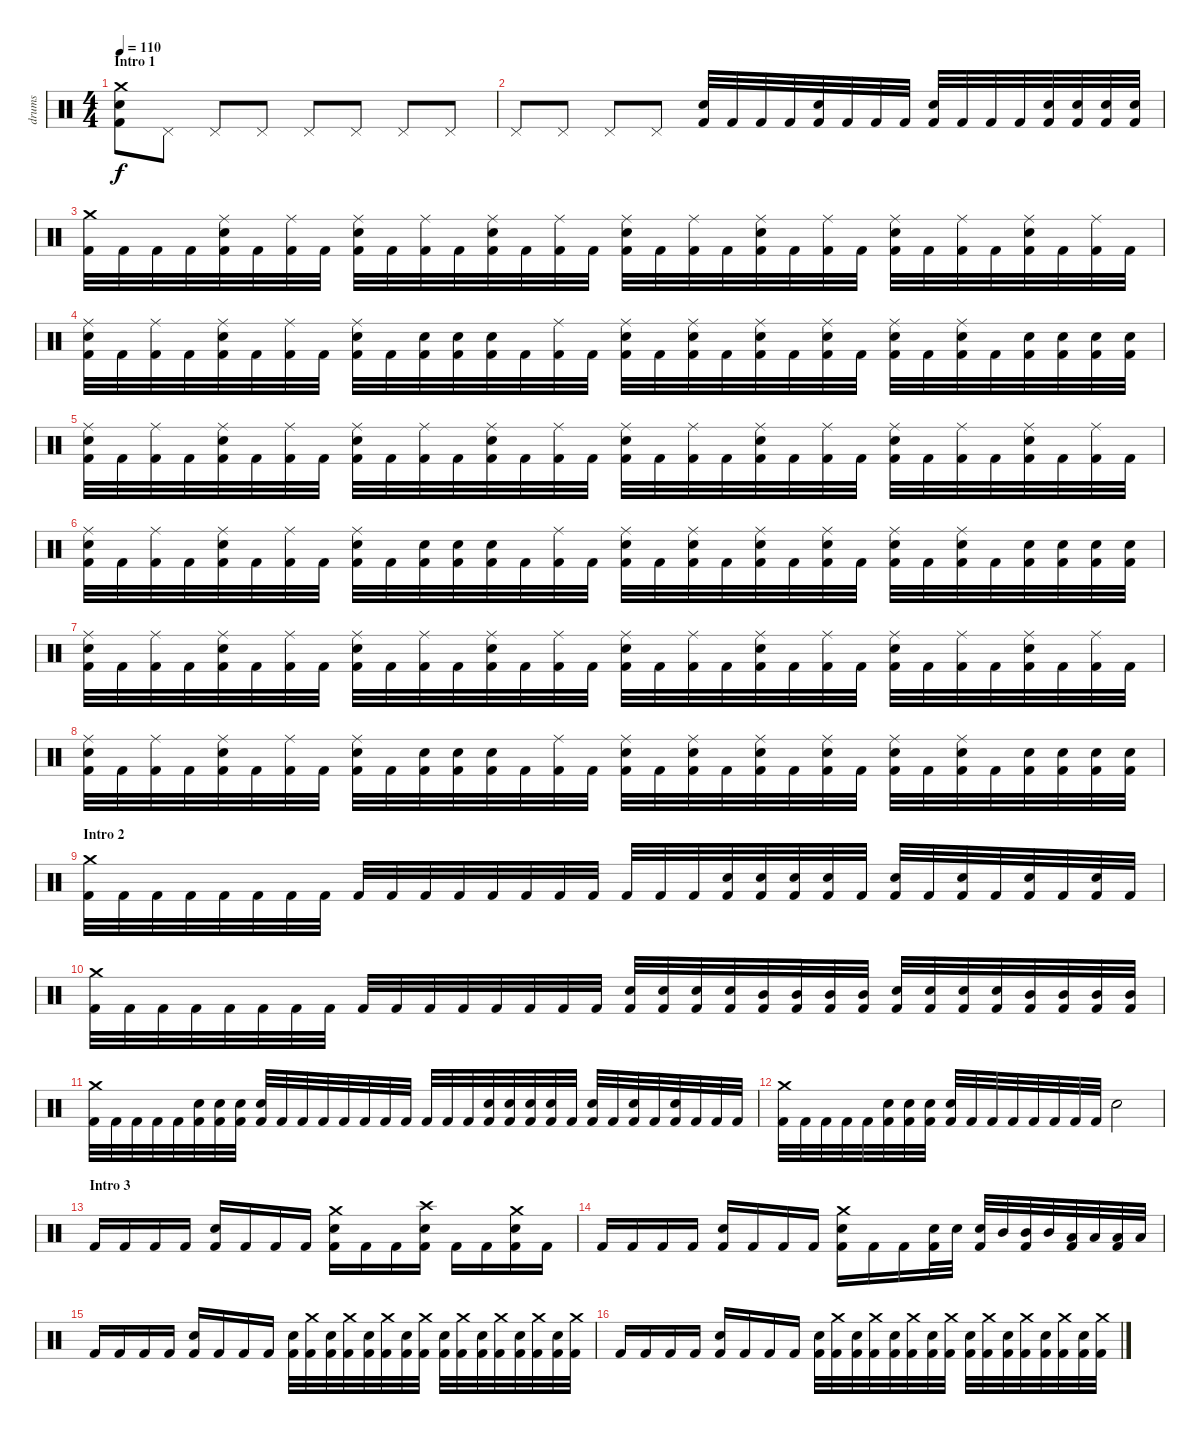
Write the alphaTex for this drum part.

\track ("drums" "drums") {instrument percussion}
\staff {score}
\articulation defaults
\ts (4 4)
\section ("" "Intro 1")
\tempo 110
\clef neutral
\ks c
("Crash medium (hit)" "Electric Snare (hit)" "Kick (hit) 2").8{dy f} "Pedal Hi-Hat (hit)".8 "Pedal Hi-Hat (hit)".8 "Pedal Hi-Hat (hit)".8 "Pedal Hi-Hat (hit)".8 "Pedal Hi-Hat (hit)".8 "Pedal Hi-Hat (hit)".8 "Pedal Hi-Hat (hit)".8 |
"Pedal Hi-Hat (hit)".8 "Pedal Hi-Hat (hit)".8 "Pedal Hi-Hat (hit)".8 "Pedal Hi-Hat (hit)".8 ("Electric Snare (hit)" "Kick (hit) 2").32 "Kick (hit) 2".32 "Kick (hit) 2".32 "Kick (hit) 2".32 ("Electric Snare (hit)" "Kick (hit) 2").32 "Kick (hit) 2".32 "Kick (hit) 2".32 "Kick (hit) 2".32 ("Electric Snare (hit)" "Kick (hit) 2").32 "Kick (hit) 2".32 "Kick (hit) 2".32 "Kick (hit) 2".32 ("Electric Snare (hit)" "Kick (hit) 2").32 ("Electric Snare (hit)" "Kick (hit) 2").32 ("Electric Snare (hit)" "Kick (hit) 2").32 ("Electric Snare (hit)" "Kick (hit) 2").32 |
("Crash medium (hit)" "Kick (hit) 2").32 "Kick (hit) 2".32 "Kick (hit) 2".32 "Kick (hit) 2".32 ("Ride (middle)" "Electric Snare (hit)" "Kick (hit) 2").32 "Kick (hit) 2".32 ("Ride (middle)" "Kick (hit) 2").32 "Kick (hit) 2".32 ("Ride (middle)" "Electric Snare (hit)" "Kick (hit) 2").32 "Kick (hit) 2".32 ("Ride (middle)" "Kick (hit) 2").32 "Kick (hit) 2".32 ("Ride (middle)" "Electric Snare (hit)" "Kick (hit) 2").32 "Kick (hit) 2".32 ("Ride (middle)" "Kick (hit) 2").32 "Kick (hit) 2".32 ("Ride (middle)" "Electric Snare (hit)" "Kick (hit) 2").32 "Kick (hit) 2".32 ("Ride (middle)" "Kick (hit) 2").32 "Kick (hit) 2".32 ("Ride (middle)" "Electric Snare (hit)" "Kick (hit) 2").32 "Kick (hit) 2".32 ("Ride (middle)" "Kick (hit) 2").32 "Kick (hit) 2".32 ("Ride (middle)" "Electric Snare (hit)" "Kick (hit) 2").32 "Kick (hit) 2".32 ("Ride (middle)" "Kick (hit) 2").32 "Kick (hit) 2".32 ("Ride (middle)" "Electric Snare (hit)" "Kick (hit) 2").32 "Kick (hit) 2".32 ("Ride (middle)" "Kick (hit) 2").32 "Kick (hit) 2".32 |
("Ride (middle)" "Electric Snare (hit)" "Kick (hit) 2").32 "Kick (hit) 2".32 ("Ride (middle)" "Kick (hit) 2").32 "Kick (hit) 2".32 ("Ride (middle)" "Electric Snare (hit)" "Kick (hit) 2").32 "Kick (hit) 2".32 ("Ride (middle)" "Kick (hit) 2").32 "Kick (hit) 2".32 ("Ride (middle)" "Electric Snare (hit)" "Kick (hit) 2").32 "Kick (hit) 2".32 ("Electric Snare (hit)" "Kick (hit) 2").32 ("Electric Snare (hit)" "Kick (hit) 2").32 ("Electric Snare (hit)" "Kick (hit) 2").32 "Kick (hit) 2".32 ("Ride (middle)" "Kick (hit) 2").32 "Kick (hit) 2".32 ("Ride (middle)" "Electric Snare (hit)" "Kick (hit) 2").32 "Kick (hit) 2".32 ("Ride (middle)" "Electric Snare (hit)" "Kick (hit) 2").32 "Kick (hit) 2".32 ("Ride (middle)" "Electric Snare (hit)" "Kick (hit) 2").32 "Kick (hit) 2".32 ("Ride (middle)" "Electric Snare (hit)" "Kick (hit) 2").32 "Kick (hit) 2".32 ("Ride (middle)" "Electric Snare (hit)" "Kick (hit) 2").32 "Kick (hit) 2".32 ("Ride (middle)" "Electric Snare (hit)" "Kick (hit) 2").32 "Kick (hit) 2".32 ("Electric Snare (hit)" "Kick (hit) 2").32 ("Electric Snare (hit)" "Kick (hit) 2").32 ("Electric Snare (hit)" "Kick (hit) 2").32 ("Electric Snare (hit)" "Kick (hit) 2").32 |
("Ride (middle)" "Electric Snare (hit)" "Kick (hit) 2").32 "Kick (hit) 2".32 ("Ride (middle)" "Kick (hit) 2").32 "Kick (hit) 2".32 ("Ride (middle)" "Electric Snare (hit)" "Kick (hit) 2").32 "Kick (hit) 2".32 ("Ride (middle)" "Kick (hit) 2").32 "Kick (hit) 2".32 ("Ride (middle)" "Electric Snare (hit)" "Kick (hit) 2").32 "Kick (hit) 2".32 ("Ride (middle)" "Kick (hit) 2").32 "Kick (hit) 2".32 ("Ride (middle)" "Electric Snare (hit)" "Kick (hit) 2").32 "Kick (hit) 2".32 ("Ride (middle)" "Kick (hit) 2").32 "Kick (hit) 2".32 ("Ride (middle)" "Electric Snare (hit)" "Kick (hit) 2").32 "Kick (hit) 2".32 ("Ride (middle)" "Kick (hit) 2").32 "Kick (hit) 2".32 ("Ride (middle)" "Electric Snare (hit)" "Kick (hit) 2").32 "Kick (hit) 2".32 ("Ride (middle)" "Kick (hit) 2").32 "Kick (hit) 2".32 ("Ride (middle)" "Electric Snare (hit)" "Kick (hit) 2").32 "Kick (hit) 2".32 ("Ride (middle)" "Kick (hit) 2").32 "Kick (hit) 2".32 ("Ride (middle)" "Electric Snare (hit)" "Kick (hit) 2").32 "Kick (hit) 2".32 ("Ride (middle)" "Kick (hit) 2").32 "Kick (hit) 2".32 |
("Ride (middle)" "Electric Snare (hit)" "Kick (hit) 2").32 "Kick (hit) 2".32 ("Ride (middle)" "Kick (hit) 2").32 "Kick (hit) 2".32 ("Ride (middle)" "Electric Snare (hit)" "Kick (hit) 2").32 "Kick (hit) 2".32 ("Ride (middle)" "Kick (hit) 2").32 "Kick (hit) 2".32 ("Ride (middle)" "Electric Snare (hit)" "Kick (hit) 2").32 "Kick (hit) 2".32 ("Electric Snare (hit)" "Kick (hit) 2").32 ("Electric Snare (hit)" "Kick (hit) 2").32 ("Electric Snare (hit)" "Kick (hit) 2").32 "Kick (hit) 2".32 ("Ride (middle)" "Kick (hit) 2").32 "Kick (hit) 2".32 ("Ride (middle)" "Electric Snare (hit)" "Kick (hit) 2").32 "Kick (hit) 2".32 ("Ride (middle)" "Electric Snare (hit)" "Kick (hit) 2").32 "Kick (hit) 2".32 ("Ride (middle)" "Electric Snare (hit)" "Kick (hit) 2").32 "Kick (hit) 2".32 ("Ride (middle)" "Electric Snare (hit)" "Kick (hit) 2").32 "Kick (hit) 2".32 ("Ride (middle)" "Electric Snare (hit)" "Kick (hit) 2").32 "Kick (hit) 2".32 ("Ride (middle)" "Electric Snare (hit)" "Kick (hit) 2").32 "Kick (hit) 2".32 ("Electric Snare (hit)" "Kick (hit) 2").32 ("Electric Snare (hit)" "Kick (hit) 2").32 ("Electric Snare (hit)" "Kick (hit) 2").32 ("Electric Snare (hit)" "Kick (hit) 2").32 |
("Ride (middle)" "Electric Snare (hit)" "Kick (hit) 2").32 "Kick (hit) 2".32 ("Ride (middle)" "Kick (hit) 2").32 "Kick (hit) 2".32 ("Ride (middle)" "Electric Snare (hit)" "Kick (hit) 2").32 "Kick (hit) 2".32 ("Ride (middle)" "Kick (hit) 2").32 "Kick (hit) 2".32 ("Ride (middle)" "Electric Snare (hit)" "Kick (hit) 2").32 "Kick (hit) 2".32 ("Ride (middle)" "Kick (hit) 2").32 "Kick (hit) 2".32 ("Ride (middle)" "Electric Snare (hit)" "Kick (hit) 2").32 "Kick (hit) 2".32 ("Ride (middle)" "Kick (hit) 2").32 "Kick (hit) 2".32 ("Ride (middle)" "Electric Snare (hit)" "Kick (hit) 2").32 "Kick (hit) 2".32 ("Ride (middle)" "Kick (hit) 2").32 "Kick (hit) 2".32 ("Ride (middle)" "Electric Snare (hit)" "Kick (hit) 2").32 "Kick (hit) 2".32 ("Ride (middle)" "Kick (hit) 2").32 "Kick (hit) 2".32 ("Ride (middle)" "Electric Snare (hit)" "Kick (hit) 2").32 "Kick (hit) 2".32 ("Ride (middle)" "Kick (hit) 2").32 "Kick (hit) 2".32 ("Ride (middle)" "Electric Snare (hit)" "Kick (hit) 2").32 "Kick (hit) 2".32 ("Ride (middle)" "Kick (hit) 2").32 "Kick (hit) 2".32 |
("Ride (middle)" "Electric Snare (hit)" "Kick (hit) 2").32 "Kick (hit) 2".32 ("Ride (middle)" "Kick (hit) 2").32 "Kick (hit) 2".32 ("Ride (middle)" "Electric Snare (hit)" "Kick (hit) 2").32 "Kick (hit) 2".32 ("Ride (middle)" "Kick (hit) 2").32 "Kick (hit) 2".32 ("Ride (middle)" "Electric Snare (hit)" "Kick (hit) 2").32 "Kick (hit) 2".32 ("Electric Snare (hit)" "Kick (hit) 2").32 ("Electric Snare (hit)" "Kick (hit) 2").32 ("Electric Snare (hit)" "Kick (hit) 2").32 "Kick (hit) 2".32 ("Ride (middle)" "Kick (hit) 2").32 "Kick (hit) 2".32 ("Ride (middle)" "Electric Snare (hit)" "Kick (hit) 2").32 "Kick (hit) 2".32 ("Ride (middle)" "Electric Snare (hit)" "Kick (hit) 2").32 "Kick (hit) 2".32 ("Ride (middle)" "Electric Snare (hit)" "Kick (hit) 2").32 "Kick (hit) 2".32 ("Ride (middle)" "Electric Snare (hit)" "Kick (hit) 2").32 "Kick (hit) 2".32 ("Ride (middle)" "Electric Snare (hit)" "Kick (hit) 2").32 "Kick (hit) 2".32 ("Ride (middle)" "Electric Snare (hit)" "Kick (hit) 2").32 "Kick (hit) 2".32 ("Electric Snare (hit)" "Kick (hit) 2").32 ("Electric Snare (hit)" "Kick (hit) 2").32 ("Electric Snare (hit)" "Kick (hit) 2").32 ("Electric Snare (hit)" "Kick (hit) 2").32 |
\section ("" "Intro 2")
("Crash medium (hit)" "Kick (hit) 2").32 "Kick (hit) 2".32 "Kick (hit) 2".32 "Kick (hit) 2".32 "Kick (hit) 2".32 "Kick (hit) 2".32 "Kick (hit) 2".32 "Kick (hit) 2".32 "Kick (hit) 2".32 "Kick (hit) 2".32 "Kick (hit) 2".32 "Kick (hit) 2".32 "Kick (hit) 2".32 "Kick (hit) 2".32 "Kick (hit) 2".32 "Kick (hit) 2".32 "Kick (hit) 2".32 "Kick (hit) 2".32 "Kick (hit) 2".32 ("Electric Snare (hit)" "Kick (hit) 2").32 ("Electric Snare (hit)" "Kick (hit) 2").32 ("Electric Snare (hit)" "Kick (hit) 2").32 ("Electric Snare (hit)" "Kick (hit) 2").32 "Kick (hit) 2".32 ("Electric Snare (hit)" "Kick (hit) 2").32 "Kick (hit) 2".32 ("Electric Snare (hit)" "Kick (hit) 2").32 "Kick (hit) 2".32 ("Electric Snare (hit)" "Kick (hit) 2").32 "Kick (hit) 2".32 ("Electric Snare (hit)" "Kick (hit) 2").32 "Kick (hit) 2".32 |
("Crash medium (hit)" "Kick (hit) 2").32 "Kick (hit) 2".32 "Kick (hit) 2".32 "Kick (hit) 2".32 "Kick (hit) 2".32 "Kick (hit) 2".32 "Kick (hit) 2".32 "Kick (hit) 2".32 "Kick (hit) 2".32 "Kick (hit) 2".32 "Kick (hit) 2".32 "Kick (hit) 2".32 "Kick (hit) 2".32 "Kick (hit) 2".32 "Kick (hit) 2".32 "Kick (hit) 2".32 ("Electric Snare (hit)" "Kick (hit) 2").32 ("Electric Snare (hit)" "Kick (hit) 2").32 ("Electric Snare (hit)" "Kick (hit) 2").32 ("Electric Snare (hit)" "Kick (hit) 2").32 ("Mid Tom (hit)" "Kick (hit) 2").32 ("Mid Tom (hit)" "Kick (hit) 2").32 ("Mid Tom (hit)" "Kick (hit) 2").32 ("Mid Tom (hit)" "Kick (hit) 2").32 ("Electric Snare (hit)" "Kick (hit) 2").32 ("Electric Snare (hit)" "Kick (hit) 2").32 ("Electric Snare (hit)" "Kick (hit) 2").32 ("Electric Snare (hit)" "Kick (hit) 2").32 ("Mid Tom (hit)" "Kick (hit) 2").32 ("Mid Tom (hit)" "Kick (hit) 2").32 ("Mid Tom (hit)" "Kick (hit) 2").32 ("Mid Tom (hit)" "Kick (hit) 2").32 |
("Crash medium (hit)" "Kick (hit) 2").32 "Kick (hit) 2".32 "Kick (hit) 2".32 "Kick (hit) 2".32 "Kick (hit) 2".32 ("Electric Snare (hit)" "Kick (hit) 2").32 ("Electric Snare (hit)" "Kick (hit) 2").32 ("Electric Snare (hit)" "Kick (hit) 2").32 ("Electric Snare (hit)" "Kick (hit) 2").32 "Kick (hit) 2".32 "Kick (hit) 2".32 "Kick (hit) 2".32 "Kick (hit) 2".32 "Kick (hit) 2".32 "Kick (hit) 2".32 "Kick (hit) 2".32 "Kick (hit) 2".32 "Kick (hit) 2".32 "Kick (hit) 2".32 ("Electric Snare (hit)" "Kick (hit) 2").32 ("Electric Snare (hit)" "Kick (hit) 2").32 ("Electric Snare (hit)" "Kick (hit) 2").32 ("Electric Snare (hit)" "Kick (hit) 2").32 "Kick (hit) 2".32 ("Electric Snare (hit)" "Kick (hit) 2").32 "Kick (hit) 2".32 ("Electric Snare (hit)" "Kick (hit) 2").32 "Kick (hit) 2".32 ("Electric Snare (hit)" "Kick (hit) 2").32 "Kick (hit) 2".32 "Kick (hit) 2".32 "Kick (hit) 2".32 |
("Crash medium (hit)" "Kick (hit) 2").32 "Kick (hit) 2".32 "Kick (hit) 2".32 "Kick (hit) 2".32 "Kick (hit) 2".32 ("Electric Snare (hit)" "Kick (hit) 2").32 ("Electric Snare (hit)" "Kick (hit) 2").32 ("Electric Snare (hit)" "Kick (hit) 2").32 ("Electric Snare (hit)" "Kick (hit) 2").32 "Kick (hit) 2".32 "Kick (hit) 2".32 "Kick (hit) 2".32 "Kick (hit) 2".32 "Kick (hit) 2".32 "Kick (hit) 2".32 "Kick (hit) 2".32 "Electric Snare (hit)".2 |
\section ("" "Intro 3")
"Kick (hit) 2".16 "Kick (hit) 2".16 "Kick (hit) 2".16 "Kick (hit) 2".16 ("Electric Snare (hit)" "Kick (hit) 2").16 "Kick (hit) 2".16 "Kick (hit) 2".16 "Kick (hit) 2".16 ("Crash medium (hit)" "Electric Snare (hit)" "Kick (hit) 2").16 "Kick (hit) 2".16 "Kick (hit) 2".16 ("Crash high (hit)" "Electric Snare (hit)" "Kick (hit) 2").16 "Kick (hit) 2".16 "Kick (hit) 2".16 ("Crash medium (hit)" "Electric Snare (hit)" "Kick (hit) 2").16 "Kick (hit) 2".16 |
"Kick (hit) 2".16 "Kick (hit) 2".16 "Kick (hit) 2".16 "Kick (hit) 2".16 ("Electric Snare (hit)" "Kick (hit) 2").16 "Kick (hit) 2".16 "Kick (hit) 2".16 "Kick (hit) 2".16 ("Crash medium (hit)" "Electric Snare (hit)" "Kick (hit) 2").16 "Kick (hit) 2".16 "Kick (hit) 2".16 ("Electric Snare (hit)" "Kick (hit) 2").32 "Electric Snare (hit)".32 ("Electric Snare (hit)" "Kick (hit) 2").32 "Mid Tom (hit)".32 ("Mid Tom (hit)" "Kick (hit) 2").32 "Mid Tom (hit)".32 ("Low Tom (hit)" "Kick (hit) 2").32 "Low Tom (hit)".32 ("Low Tom (hit)" "Kick (hit) 2").32 "Low Tom (hit)".32 |
"Kick (hit) 2".16 "Kick (hit) 2".16 "Kick (hit) 2".16 "Kick (hit) 2".16 ("Electric Snare (hit)" "Kick (hit) 2").16 "Kick (hit) 2".16 "Kick (hit) 2".16 "Kick (hit) 2".16 ("Electric Snare (hit)" "Kick (hit) 2").32 ("Crash medium (hit)" "Kick (hit) 2").32 ("Electric Snare (hit)" "Kick (hit) 2").32 ("Crash medium (hit)" "Kick (hit) 2").32 ("Electric Snare (hit)" "Kick (hit) 2").32 ("Crash medium (hit)" "Kick (hit) 2").32 ("Electric Snare (hit)" "Kick (hit) 2").32 ("Crash medium (hit)" "Kick (hit) 2").32 ("Electric Snare (hit)" "Kick (hit) 2").32 ("Crash medium (hit)" "Kick (hit) 2").32 ("Electric Snare (hit)" "Kick (hit) 2").32 ("Crash medium (hit)" "Kick (hit) 2").32 ("Electric Snare (hit)" "Kick (hit) 2").32 ("Crash medium (hit)" "Kick (hit) 2").32 ("Electric Snare (hit)" "Kick (hit) 2").32 ("Crash medium (hit)" "Kick (hit) 2").32 |
"Kick (hit) 2".16 "Kick (hit) 2".16 "Kick (hit) 2".16 "Kick (hit) 2".16 ("Electric Snare (hit)" "Kick (hit) 2").16 "Kick (hit) 2".16 "Kick (hit) 2".16 "Kick (hit) 2".16 ("Electric Snare (hit)" "Kick (hit) 2").32 ("Crash medium (hit)" "Kick (hit) 2").32 ("Electric Snare (hit)" "Kick (hit) 2").32 ("Crash medium (hit)" "Kick (hit) 2").32 ("Electric Snare (hit)" "Kick (hit) 2").32 ("Crash medium (hit)" "Kick (hit) 2").32 ("Electric Snare (hit)" "Kick (hit) 2").32 ("Crash medium (hit)" "Kick (hit) 2").32 ("Electric Snare (hit)" "Kick (hit) 2").32 ("Crash medium (hit)" "Kick (hit) 2").32 ("Electric Snare (hit)" "Kick (hit) 2").32 ("Crash medium (hit)" "Kick (hit) 2").32 ("Electric Snare (hit)" "Kick (hit) 2").32 ("Crash medium (hit)" "Kick (hit) 2").32 ("Electric Snare (hit)" "Kick (hit) 2").32 ("Crash medium (hit)" "Kick (hit) 2").32
